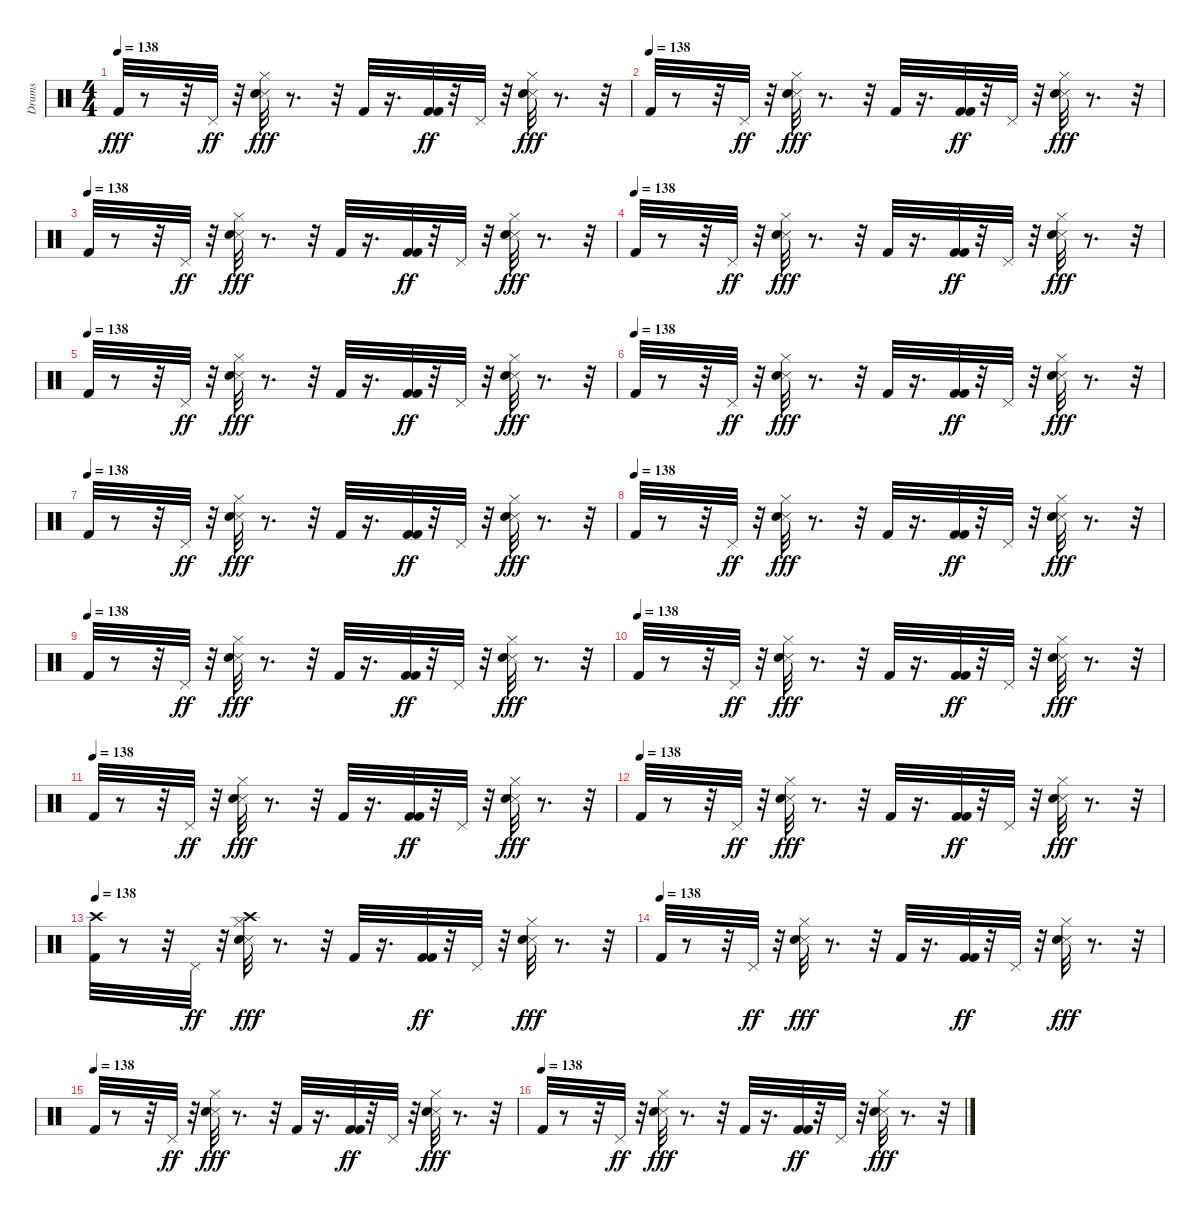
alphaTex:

\track ("Drums" "Drums") {instrument percussion}
\staff {score}
\articulation defaults
\ts (4 4)
\tempo 138
\clef neutral
\ks c "Kick (hit) 2".32{dy fff volume 12}
r.8 r.32 "Pedal Hi-Hat (hit)".32{dy ff} r.32 ("Snare (side stick) 3" "Snare (hit) 2" "Hi-Hat (closed)").32{dy fff} r.8{d} r.32 "Kick (hit) 2".32 r.16{d} ("Kick (hit) 2" "Kick (hit) 2").32{dy ff} r.32 "Pedal Hi-Hat (hit)".32 r.32 ("Snare (side stick) 3" "Snare (hit) 2" "Hi-Hat (closed)").32{dy fff} r.8{d} r.32 |
\tempo (138)
"Kick (hit) 2".32{volume 12} r.8 r.32 "Pedal Hi-Hat (hit)".32{dy ff} r.32 ("Snare (side stick) 3" "Snare (hit) 2" "Hi-Hat (closed)").32{dy fff} r.8{d} r.32 "Kick (hit) 2".32 r.16{d} ("Kick (hit) 2" "Kick (hit) 2").32{dy ff} r.32 "Pedal Hi-Hat (hit)".32 r.32 ("Snare (side stick) 3" "Snare (hit) 2" "Hi-Hat (closed)").32{dy fff} r.8{d} r.32 |
\tempo (138)
"Kick (hit) 2".32{volume 12} r.8 r.32 "Pedal Hi-Hat (hit)".32{dy ff} r.32 ("Snare (side stick) 3" "Snare (hit) 2" "Hi-Hat (closed)").32{dy fff} r.8{d} r.32 "Kick (hit) 2".32 r.16{d} ("Kick (hit) 2" "Kick (hit) 2").32{dy ff} r.32 "Pedal Hi-Hat (hit)".32 r.32 ("Snare (side stick) 3" "Snare (hit) 2" "Hi-Hat (closed)").32{dy fff} r.8{d} r.32 |
\tempo (138)
"Kick (hit) 2".32{volume 12} r.8 r.32 "Pedal Hi-Hat (hit)".32{dy ff} r.32 ("Snare (side stick) 3" "Snare (hit) 2" "Hi-Hat (closed)").32{dy fff} r.8{d} r.32 "Kick (hit) 2".32 r.16{d} ("Kick (hit) 2" "Kick (hit) 2").32{dy ff} r.32 "Pedal Hi-Hat (hit)".32 r.32 ("Snare (side stick) 3" "Snare (hit) 2" "Hi-Hat (closed)").32{dy fff} r.8{d} r.32 |
\tempo (138)
"Kick (hit) 2".32{volume 12} r.8 r.32 "Pedal Hi-Hat (hit)".32{dy ff} r.32 ("Snare (side stick) 3" "Snare (hit) 2" "Hi-Hat (closed)").32{dy fff} r.8{d} r.32 "Kick (hit) 2".32 r.16{d} ("Kick (hit) 2" "Kick (hit) 2").32{dy ff} r.32 "Pedal Hi-Hat (hit)".32 r.32 ("Snare (side stick) 3" "Snare (hit) 2" "Hi-Hat (closed)").32{dy fff} r.8{d} r.32 |
\tempo (138)
"Kick (hit) 2".32{volume 12} r.8 r.32 "Pedal Hi-Hat (hit)".32{dy ff} r.32 ("Snare (side stick) 3" "Snare (hit) 2" "Hi-Hat (closed)").32{dy fff} r.8{d} r.32 "Kick (hit) 2".32 r.16{d} ("Kick (hit) 2" "Kick (hit) 2").32{dy ff} r.32 "Pedal Hi-Hat (hit)".32 r.32 ("Snare (side stick) 3" "Snare (hit) 2" "Hi-Hat (closed)").32{dy fff} r.8{d} r.32 |
\tempo (138)
"Kick (hit) 2".32{volume 12} r.8 r.32 "Pedal Hi-Hat (hit)".32{dy ff} r.32 ("Snare (side stick) 3" "Snare (hit) 2" "Hi-Hat (closed)").32{dy fff} r.8{d} r.32 "Kick (hit) 2".32 r.16{d} ("Kick (hit) 2" "Kick (hit) 2").32{dy ff} r.32 "Pedal Hi-Hat (hit)".32 r.32 ("Snare (side stick) 3" "Snare (hit) 2" "Hi-Hat (closed)").32{dy fff} r.8{d} r.32 |
\tempo (138)
"Kick (hit) 2".32{volume 12} r.8 r.32 "Pedal Hi-Hat (hit)".32{dy ff} r.32 ("Snare (side stick) 3" "Snare (hit) 2" "Hi-Hat (closed)").32{dy fff} r.8{d} r.32 "Kick (hit) 2".32 r.16{d} ("Kick (hit) 2" "Kick (hit) 2").32{dy ff} r.32 "Pedal Hi-Hat (hit)".32 r.32 ("Snare (side stick) 3" "Snare (hit) 2" "Hi-Hat (closed)").32{dy fff} r.8{d} r.32 |
\tempo (138)
"Kick (hit) 2".32{volume 12} r.8 r.32 "Pedal Hi-Hat (hit)".32{dy ff} r.32 ("Snare (side stick) 3" "Snare (hit) 2" "Hi-Hat (closed)").32{dy fff} r.8{d} r.32 "Kick (hit) 2".32 r.16{d} ("Kick (hit) 2" "Kick (hit) 2").32{dy ff} r.32 "Pedal Hi-Hat (hit)".32 r.32 ("Snare (side stick) 3" "Snare (hit) 2" "Hi-Hat (closed)").32{dy fff} r.8{d} r.32 |
\tempo (138)
"Kick (hit) 2".32{volume 12} r.8 r.32 "Pedal Hi-Hat (hit)".32{dy ff} r.32 ("Snare (side stick) 3" "Snare (hit) 2" "Hi-Hat (closed)").32{dy fff} r.8{d} r.32 "Kick (hit) 2".32 r.16{d} ("Kick (hit) 2" "Kick (hit) 2").32{dy ff} r.32 "Pedal Hi-Hat (hit)".32 r.32 ("Snare (side stick) 3" "Snare (hit) 2" "Hi-Hat (closed)").32{dy fff} r.8{d} r.32 |
\tempo (138)
"Kick (hit) 2".32{volume 12} r.8 r.32 "Pedal Hi-Hat (hit)".32{dy ff} r.32 ("Snare (side stick) 3" "Snare (hit) 2" "Hi-Hat (closed)").32{dy fff} r.8{d} r.32 "Kick (hit) 2".32 r.16{d} ("Kick (hit) 2" "Kick (hit) 2").32{dy ff} r.32 "Pedal Hi-Hat (hit)".32 r.32 ("Snare (side stick) 3" "Snare (hit) 2" "Hi-Hat (closed)").32{dy fff} r.8{d} r.32 |
\tempo (138)
"Kick (hit) 2".32{volume 12} r.8 r.32 "Pedal Hi-Hat (hit)".32{dy ff} r.32 ("Snare (side stick) 3" "Snare (hit) 2" "Hi-Hat (closed)").32{dy fff} r.8{d} r.32 "Kick (hit) 2".32 r.16{d} ("Kick (hit) 2" "Kick (hit) 2").32{dy ff} r.32 "Pedal Hi-Hat (hit)".32 r.32 ("Snare (side stick) 3" "Snare (hit) 2" "Hi-Hat (closed)").32{dy fff} r.8{d} r.32 |
\tempo 138
("Kick (hit) 2" "Crash high (hit)").32{volume 12} r.8 r.32 "Pedal Hi-Hat (hit)".32{dy ff} r.32 ("Snare (side stick) 3" "Snare (hit) 2" "Hi-Hat (closed)" "Crash high (hit)").32{dy fff} r.8{d} r.32 "Kick (hit) 2".32 r.16{d} ("Kick (hit) 2" "Kick (hit) 2").32{dy ff} r.32 "Pedal Hi-Hat (hit)".32 r.32 ("Snare (side stick) 3" "Snare (hit) 2" "Hi-Hat (closed)").32{dy fff} r.8{d} r.32 |
\tempo (138)
"Kick (hit) 2".32{volume 12} r.8 r.32 "Pedal Hi-Hat (hit)".32{dy ff} r.32 ("Snare (side stick) 3" "Snare (hit) 2" "Hi-Hat (closed)").32{dy fff} r.8{d} r.32 "Kick (hit) 2".32 r.16{d} ("Kick (hit) 2" "Kick (hit) 2").32{dy ff} r.32 "Pedal Hi-Hat (hit)".32 r.32 ("Snare (side stick) 3" "Snare (hit) 2" "Hi-Hat (closed)").32{dy fff} r.8{d} r.32 |
\tempo (138)
"Kick (hit) 2".32{volume 12} r.8 r.32 "Pedal Hi-Hat (hit)".32{dy ff} r.32 ("Snare (side stick) 3" "Snare (hit) 2" "Hi-Hat (closed)").32{dy fff} r.8{d} r.32 "Kick (hit) 2".32 r.16{d} ("Kick (hit) 2" "Kick (hit) 2").32{dy ff} r.32 "Pedal Hi-Hat (hit)".32 r.32 ("Snare (side stick) 3" "Snare (hit) 2" "Hi-Hat (closed)").32{dy fff} r.8{d} r.32 |
\tempo (138)
"Kick (hit) 2".32{volume 12} r.8 r.32 "Pedal Hi-Hat (hit)".32{dy ff} r.32 ("Snare (side stick) 3" "Snare (hit) 2" "Hi-Hat (closed)").32{dy fff} r.8{d} r.32 "Kick (hit) 2".32 r.16{d} ("Kick (hit) 2" "Kick (hit) 2").32{dy ff} r.32 "Pedal Hi-Hat (hit)".32 r.32 ("Snare (side stick) 3" "Snare (hit) 2" "Hi-Hat (closed)").32{dy fff} r.8{d} r.32
